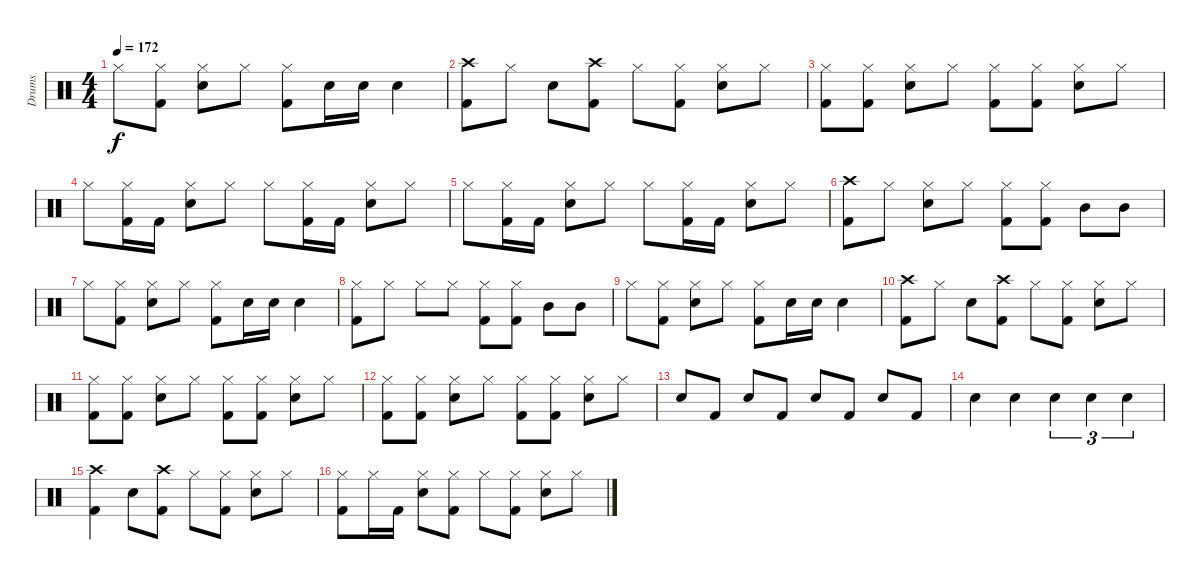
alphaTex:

\track ("Drums" "Drums") {instrument percussion}
\staff {score}
\articulation defaults
\ts (4 4)
\tempo 172
\clef neutral
\ks c "Hi-Hat (closed)".8{dy f}
("Hi-Hat (closed)" "Kick (hit) 2").8 ("Hi-Hat (closed)" "Electric Snare (hit)").8 "Hi-Hat (closed)".8 ("Hi-Hat (closed)" "Kick (hit) 2").8 "Electric Snare (hit)".16 "Electric Snare (hit)".16 "Electric Snare (hit)".4 |
("Crash high (hit)" "Kick (hit) 2").8 "Hi-Hat (closed)".8 "Electric Snare (hit)".8 ("Crash high (hit)" "Kick (hit) 2").8 "Hi-Hat (closed)".8 ("Hi-Hat (closed)" "Kick (hit) 2").8 ("Hi-Hat (closed)" "Electric Snare (hit)").8 "Hi-Hat (closed)".8 |
("Hi-Hat (closed)" "Kick (hit) 2").8 ("Hi-Hat (closed)" "Kick (hit) 2").8 ("Hi-Hat (closed)" "Electric Snare (hit)").8 "Hi-Hat (closed)".8 ("Hi-Hat (closed)" "Kick (hit) 2").8 ("Hi-Hat (closed)" "Kick (hit) 2").8 ("Hi-Hat (closed)" "Electric Snare (hit)").8 "Hi-Hat (closed)".8 |
"Hi-Hat (closed)".8 ("Hi-Hat (closed)" "Kick (hit) 2").16 "Kick (hit) 2".16 ("Hi-Hat (closed)" "Electric Snare (hit)").8 "Hi-Hat (closed)".8 "Hi-Hat (closed)".8 ("Hi-Hat (closed)" "Kick (hit) 2").16 "Kick (hit) 2".16 ("Hi-Hat (closed)" "Electric Snare (hit)").8 "Hi-Hat (closed)".8 |
"Hi-Hat (closed)".8 ("Hi-Hat (closed)" "Kick (hit) 2").16 "Kick (hit) 2".16 ("Hi-Hat (closed)" "Electric Snare (hit)").8 "Hi-Hat (closed)".8 "Hi-Hat (closed)".8 ("Hi-Hat (closed)" "Kick (hit) 2").16 "Kick (hit) 2".16 ("Hi-Hat (closed)" "Electric Snare (hit)").8 "Hi-Hat (closed)".8 |
("Crash high (hit)" "Kick (hit) 2").8 "Hi-Hat (closed)".8 ("Hi-Hat (closed)" "Electric Snare (hit)").8 "Hi-Hat (closed)".8 ("Hi-Hat (closed)" "Kick (hit) 2").8 ("Hi-Hat (closed)" "Kick (hit) 2").8 "Mid Tom (hit)".8 "Mid Tom (hit)".8 |
"Hi-Hat (closed)".8 ("Hi-Hat (closed)" "Kick (hit) 2").8 ("Hi-Hat (closed)" "Electric Snare (hit)").8 "Hi-Hat (closed)".8 ("Hi-Hat (closed)" "Kick (hit) 2").8 "Electric Snare (hit)".16 "Electric Snare (hit)".16 "Electric Snare (hit)".4 |
("Hi-Hat (closed)" "Kick (hit) 2").8 "Hi-Hat (closed)".8 "Hi-Hat (closed)".8 "Hi-Hat (closed)".8 ("Hi-Hat (closed)" "Kick (hit) 2").8 ("Hi-Hat (closed)" "Kick (hit) 2").8 "Mid Tom (hit)".8 "Mid Tom (hit)".8 |
"Hi-Hat (closed)".8 ("Hi-Hat (closed)" "Kick (hit) 2").8 ("Hi-Hat (closed)" "Electric Snare (hit)").8 "Hi-Hat (closed)".8 ("Hi-Hat (closed)" "Kick (hit) 2").8 "Electric Snare (hit)".16 "Snare (hit)".16 "Electric Snare (hit)".4 |
("Crash high (hit)" "Kick (hit) 2").8 "Hi-Hat (closed)".8 "Electric Snare (hit)".8 ("Crash high (hit)" "Kick (hit) 2").8 "Hi-Hat (closed)".8 ("Hi-Hat (closed)" "Kick (hit) 2").8 ("Hi-Hat (closed)" "Electric Snare (hit)").8 "Hi-Hat (closed)".8 |
("Hi-Hat (closed)" "Kick (hit) 2").8 ("Hi-Hat (closed)" "Kick (hit) 2").8 ("Hi-Hat (closed)" "Electric Snare (hit)").8 "Hi-Hat (closed)".8 ("Hi-Hat (closed)" "Kick (hit) 2").8 ("Hi-Hat (closed)" "Kick (hit) 2").8 ("Hi-Hat (closed)" "Electric Snare (hit)").8 "Hi-Hat (closed)".8 |
("Hi-Hat (closed)" "Kick (hit) 2").8 ("Hi-Hat (closed)" "Kick (hit) 2").8 ("Hi-Hat (closed)" "Electric Snare (hit)").8 "Hi-Hat (closed)".8 ("Hi-Hat (closed)" "Kick (hit) 2").8 ("Hi-Hat (closed)" "Kick (hit) 2").8 ("Hi-Hat (closed)" "Electric Snare (hit)").8 "Hi-Hat (closed)".8 |
"Electric Snare (hit)".8 "Kick (hit) 2".8 "Electric Snare (hit)".8 "Kick (hit) 2".8 "Electric Snare (hit)".8 "Kick (hit) 2".8 "Electric Snare (hit)".8 "Kick (hit) 2".8 |
"Electric Snare (hit)".4 "Electric Snare (hit)".4 "Electric Snare (hit)".4{tu (3 2)} "Electric Snare (hit)".4{tu (3 2)} "Electric Snare (hit)".4{tu (3 2)} |
("Crash high (hit)" "Kick (hit) 2").4 "Electric Snare (hit)".8 ("Crash high (hit)" "Kick (hit) 2").8 "Hi-Hat (closed)".8 ("Hi-Hat (closed)" "Kick (hit) 2").8 ("Hi-Hat (closed)" "Electric Snare (hit)").8 "Hi-Hat (closed)".8 |
("Hi-Hat (closed)" "Kick (hit) 2").8 "Hi-Hat (closed)".16 "Kick (hit) 2".16 ("Hi-Hat (closed)" "Electric Snare (hit)").8 ("Hi-Hat (closed)" "Kick (hit) 2").8 "Hi-Hat (closed)".8 ("Hi-Hat (closed)" "Kick (hit) 2").8 ("Hi-Hat (closed)" "Electric Snare (hit)").8 "Hi-Hat (closed)".8
